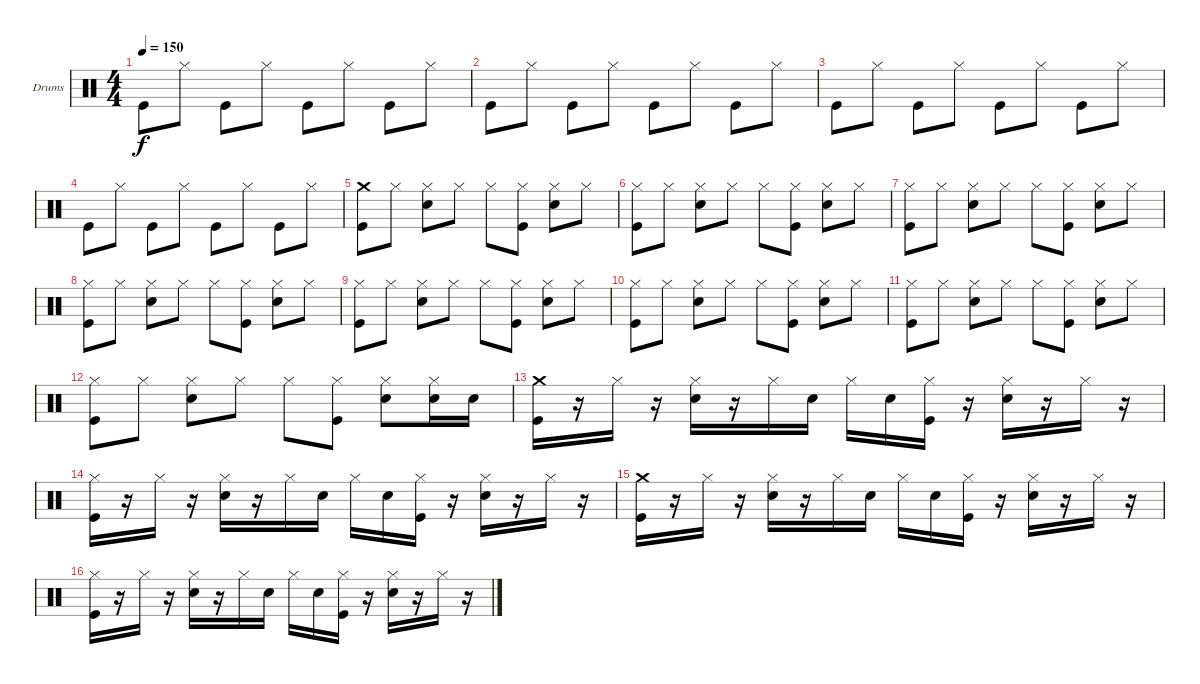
\defaultSystemsLayout 4
\bracketExtendMode groupsimilarinstruments
\firstSystemTrackNameOrientation horizontal
\otherSystemsTrackNameOrientation horizontal
\track ("Drumkit" "Drums") {instrument percussion}
\staff {score}
\articulation defaults
\ts (4 4)
\tempo 150
\clef neutral
\ks c "Kick (hit)".8{dy f} "Hi-Hat (closed)".8 "Kick (hit)".8 "Hi-Hat (closed)".8 "Kick (hit)".8 "Hi-Hat (closed)".8 "Kick (hit)".8 "Hi-Hat (closed)".8
|
"Kick (hit)".8 "Hi-Hat (closed)".8 "Kick (hit)".8 "Hi-Hat (closed)".8 "Kick (hit)".8 "Hi-Hat (closed)".8 "Kick (hit)".8 "Hi-Hat (closed)".8 |
"Kick (hit)".8 "Hi-Hat (closed)".8 "Kick (hit)".8 "Hi-Hat (closed)".8 "Kick (hit)".8 "Hi-Hat (closed)".8 "Kick (hit)".8 "Hi-Hat (closed)".8 |
"Kick (hit)".8 "Hi-Hat (closed)".8 "Kick (hit)".8 "Hi-Hat (closed)".8 "Kick (hit)".8 "Hi-Hat (closed)".8 "Kick (hit)".8 "Hi-Hat (closed)".8 |
("Kick (hit)" "Crash medium (hit)").8 "Hi-Hat (closed)".8 ("Snare (hit) 2" "Hi-Hat (closed)").8 "Hi-Hat (closed)".8 "Hi-Hat (closed)".8 ("Kick (hit)" "Hi-Hat (closed)").8 ("Snare (hit) 2" "Hi-Hat (closed)").8 "Hi-Hat (closed)".8 |
("Kick (hit)" "Hi-Hat (closed)").8 "Hi-Hat (closed)".8 ("Snare (hit) 2" "Hi-Hat (closed)").8 "Hi-Hat (closed)".8 "Hi-Hat (closed)".8 ("Kick (hit)" "Hi-Hat (closed)").8 ("Snare (hit) 2" "Hi-Hat (closed)").8 "Hi-Hat (closed)".8 |
("Kick (hit)" "Hi-Hat (closed)").8 "Hi-Hat (closed)".8 ("Snare (hit) 2" "Hi-Hat (closed)").8 "Hi-Hat (closed)".8 "Hi-Hat (closed)".8 ("Kick (hit)" "Hi-Hat (closed)").8 ("Snare (hit) 2" "Hi-Hat (closed)").8 "Hi-Hat (closed)".8 |
("Kick (hit)" "Hi-Hat (closed)").8 "Hi-Hat (closed)".8 ("Snare (hit) 2" "Hi-Hat (closed)").8 "Hi-Hat (closed)".8 "Hi-Hat (closed)".8 ("Kick (hit)" "Hi-Hat (closed)").8 ("Snare (hit) 2" "Hi-Hat (closed)").8 "Hi-Hat (closed)".8 |
("Kick (hit)" "Hi-Hat (closed)").8 "Hi-Hat (closed)".8 ("Snare (hit) 2" "Hi-Hat (closed)").8 "Hi-Hat (closed)".8 "Hi-Hat (closed)".8 ("Kick (hit)" "Hi-Hat (closed)").8 ("Snare (hit) 2" "Hi-Hat (closed)").8 "Hi-Hat (closed)".8 |
("Kick (hit)" "Hi-Hat (closed)").8 "Hi-Hat (closed)".8 ("Snare (hit) 2" "Hi-Hat (closed)").8 "Hi-Hat (closed)".8 "Hi-Hat (closed)".8 ("Kick (hit)" "Hi-Hat (closed)").8 ("Snare (hit) 2" "Hi-Hat (closed)").8 "Hi-Hat (closed)".8 |
("Kick (hit)" "Hi-Hat (closed)").8 "Hi-Hat (closed)".8 ("Snare (hit) 2" "Hi-Hat (closed)").8 "Hi-Hat (closed)".8 "Hi-Hat (closed)".8 ("Kick (hit)" "Hi-Hat (closed)").8 ("Snare (hit) 2" "Hi-Hat (closed)").8 "Hi-Hat (closed)".8 |
("Kick (hit)" "Hi-Hat (closed)").8 "Hi-Hat (closed)".8 ("Snare (hit) 2" "Hi-Hat (closed)").8 "Hi-Hat (closed)".8 "Hi-Hat (closed)".8 ("Kick (hit)" "Hi-Hat (closed)").8 ("Snare (hit) 2" "Hi-Hat (closed)").8 ("Snare (hit) 2" "Hi-Hat (closed)").16 "Snare (hit) 2".16 |
("Kick (hit)" "Crash medium (hit)").16 r.16 "Hi-Hat (closed)".16 r.16 ("Snare (hit) 2" "Hi-Hat (closed)").16 r.16 "Hi-Hat (closed)".16 "Snare (hit) 2".16 "Hi-Hat (closed)".16 "Snare (hit) 2".16 ("Kick (hit)" "Hi-Hat (closed)").16 r.16 ("Snare (hit) 2" "Hi-Hat (closed)").16 r.16 "Hi-Hat (closed)".16 r.16 |
("Kick (hit)" "Hi-Hat (closed)").16 r.16 "Hi-Hat (closed)".16 r.16 ("Snare (hit) 2" "Hi-Hat (closed)").16 r.16 "Hi-Hat (closed)".16 "Snare (hit) 2".16 "Hi-Hat (closed)".16 "Snare (hit) 2".16 ("Kick (hit)" "Hi-Hat (closed)").16 r.16 ("Snare (hit) 2" "Hi-Hat (closed)").16 r.16 "Hi-Hat (closed)".16 r.16 |
("Kick (hit)" "Crash medium (hit)").16 r.16 "Hi-Hat (closed)".16 r.16 ("Snare (hit) 2" "Hi-Hat (closed)").16 r.16 "Hi-Hat (closed)".16 "Snare (hit) 2".16 "Hi-Hat (closed)".16 "Snare (hit) 2".16 ("Kick (hit)" "Hi-Hat (closed)").16 r.16 ("Snare (hit) 2" "Hi-Hat (closed)").16 r.16 "Hi-Hat (closed)".16 r.16 |
("Kick (hit)" "Hi-Hat (closed)").16 r.16 "Hi-Hat (closed)".16 r.16 ("Snare (hit) 2" "Hi-Hat (closed)").16 r.16 "Hi-Hat (closed)".16 "Snare (hit) 2".16 "Hi-Hat (closed)".16 "Snare (hit) 2".16 ("Kick (hit)" "Hi-Hat (closed)").16 r.16 ("Snare (hit) 2" "Hi-Hat (closed)").16 r.16 "Hi-Hat (closed)".16 r.16
